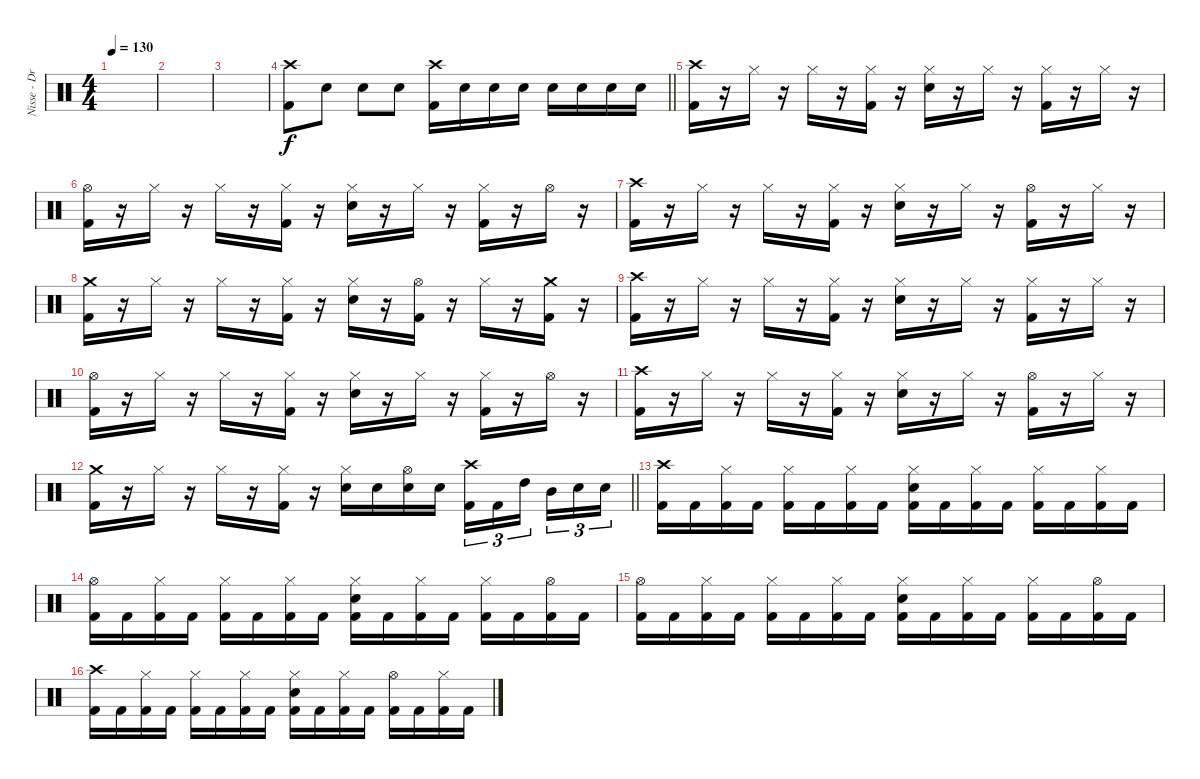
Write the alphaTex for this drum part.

\track ("Nisse - Drums" "Nisse - Dr") {instrument percussion}
\staff {score}
\articulation defaults
\ts (4 4)
\tempo 130
\clef neutral
\ks c
|
|
|
\barLineRight lightlight
("Crash high (hit)" "Kick (hit) 2").8 "Electric Snare (hit)".8 "Electric Snare (hit)".8 "Electric Snare (hit)".8 ("Crash high (hit)" "Kick (hit) 2").16 "Electric Snare (hit)".16 "Electric Snare (hit)".16 "Electric Snare (hit)".16 "Electric Snare (hit)".16 "Electric Snare (hit)".16 "Electric Snare (hit)".16 "Electric Snare (hit)".16 |
\section ("" "")
("Crash high (hit)" "Kick (hit) 2").16 r.16 "Hi-Hat (closed)".16 r.16 "Hi-Hat (closed)".16 r.16 ("Hi-Hat (closed)" "Kick (hit) 2").16 r.16 ("Hi-Hat (closed)" "Electric Snare (hit)").16 r.16 "Hi-Hat (closed)".16 r.16 ("Hi-Hat (closed)" "Kick (hit) 2").16 r.16 "Hi-Hat (closed)".16 r.16 |
("Hi-Hat (open)" "Kick (hit) 2").16 r.16 "Hi-Hat (closed)".16 r.16 "Hi-Hat (closed)".16 r.16 ("Hi-Hat (closed)" "Kick (hit) 2").16 r.16 ("Hi-Hat (closed)" "Electric Snare (hit)").16 r.16 "Hi-Hat (closed)".16 r.16 ("Hi-Hat (closed)" "Kick (hit) 2").16 r.16 "Hi-Hat (open)".16 r.16 |
("Crash high (hit)" "Kick (hit) 2").16 r.16 "Hi-Hat (closed)".16 r.16 "Hi-Hat (closed)".16 r.16 ("Hi-Hat (closed)" "Kick (hit) 2").16 r.16 ("Hi-Hat (closed)" "Electric Snare (hit)").16 r.16 "Hi-Hat (closed)".16 r.16 ("Hi-Hat (open)" "Kick (hit) 2").16 r.16 "Hi-Hat (closed)".16 r.16 |
("Crash medium (hit)" "Kick (hit) 2").16 r.16 "Hi-Hat (closed)".16 r.16 "Hi-Hat (closed)".16 r.16 ("Hi-Hat (closed)" "Kick (hit) 2").16 r.16 ("Hi-Hat (closed)" "Electric Snare (hit)").16 r.16 ("Hi-Hat (open)" "Kick (hit) 2").16 r.16 "Hi-Hat (closed)".16 r.16 ("Crash medium (hit)" "Kick (hit) 2").16 r.16 |
("Crash high (hit)" "Kick (hit) 2").16 r.16 "Hi-Hat (closed)".16 r.16 "Hi-Hat (closed)".16 r.16 ("Hi-Hat (closed)" "Kick (hit) 2").16 r.16 ("Hi-Hat (closed)" "Electric Snare (hit)").16 r.16 "Hi-Hat (closed)".16 r.16 ("Hi-Hat (closed)" "Kick (hit) 2").16 r.16 "Hi-Hat (closed)".16 r.16 |
("Hi-Hat (open)" "Kick (hit) 2").16 r.16 "Hi-Hat (closed)".16 r.16 "Hi-Hat (closed)".16 r.16 ("Hi-Hat (closed)" "Kick (hit) 2").16 r.16 ("Hi-Hat (closed)" "Electric Snare (hit)").16 r.16 "Hi-Hat (closed)".16 r.16 ("Hi-Hat (closed)" "Kick (hit) 2").16 r.16 "Hi-Hat (open)".16 r.16 |
("Crash high (hit)" "Kick (hit) 2").16 r.16 "Hi-Hat (closed)".16 r.16 "Hi-Hat (closed)".16 r.16 ("Hi-Hat (closed)" "Kick (hit) 2").16 r.16 ("Hi-Hat (closed)" "Electric Snare (hit)").16 r.16 "Hi-Hat (closed)".16 r.16 ("Hi-Hat (open)" "Kick (hit) 2").16 r.16 "Hi-Hat (closed)".16 r.16 |
\barLineRight lightlight
("Crash medium (hit)" "Kick (hit) 2").16 r.16 "Hi-Hat (closed)".16 r.16 "Hi-Hat (closed)".16 r.16 ("Hi-Hat (closed)" "Kick (hit) 2").16 r.16 ("Hi-Hat (closed)" "Electric Snare (hit)").16 "Electric Snare (hit)".16 ("Hi-Hat (open)" "Electric Snare (hit)").16 "Electric Snare (hit)".16 ("Crash high (hit)" "Kick (hit) 2").16{tu (3 2)} "Kick (hit) 2".16{tu (3 2)} "High Tom (hit)".16{tu (3 2) beam splitsecondary} "Mid Tom (hit)".16{tu (3 2)} "Electric Snare (hit)".16{tu (3 2)} "Electric Snare (hit)".16{tu (3 2)} |
("Crash high (hit)" "Kick (hit) 2").16 "Kick (hit) 2".16 ("Hi-Hat (closed)" "Kick (hit) 2").16 "Kick (hit) 2".16 ("Hi-Hat (closed)" "Kick (hit) 2").16 "Kick (hit) 2".16 ("Hi-Hat (closed)" "Kick (hit) 2").16 "Kick (hit) 2".16 ("Hi-Hat (closed)" "Electric Snare (hit)" "Kick (hit) 2").16 "Kick (hit) 2".16 ("Hi-Hat (closed)" "Kick (hit) 2").16 "Kick (hit) 2".16 ("Hi-Hat (closed)" "Kick (hit) 2").16 "Kick (hit) 2".16 ("Hi-Hat (closed)" "Kick (hit) 2").16 "Kick (hit) 2".16 |
("Hi-Hat (open)" "Kick (hit) 2").16 "Kick (hit) 2".16 ("Hi-Hat (closed)" "Kick (hit) 2").16 "Kick (hit) 2".16 ("Hi-Hat (closed)" "Kick (hit) 2").16 "Kick (hit) 2".16 ("Hi-Hat (closed)" "Kick (hit) 2").16 "Kick (hit) 2".16 ("Hi-Hat (closed)" "Electric Snare (hit)" "Kick (hit) 2").16 "Kick (hit) 2".16 ("Hi-Hat (closed)" "Kick (hit) 2").16 "Kick (hit) 2".16 ("Hi-Hat (closed)" "Kick (hit) 2").16 "Kick (hit) 2".16 ("Hi-Hat (open)" "Kick (hit) 2").16 "Kick (hit) 2".16 |
("Hi-Hat (open)" "Kick (hit) 2").16 "Kick (hit) 2".16 ("Hi-Hat (closed)" "Kick (hit) 2").16 "Kick (hit) 2".16 ("Hi-Hat (closed)" "Kick (hit) 2").16 "Kick (hit) 2".16 ("Hi-Hat (closed)" "Kick (hit) 2").16 "Kick (hit) 2".16 ("Hi-Hat (closed)" "Electric Snare (hit)" "Kick (hit) 2").16 "Kick (hit) 2".16 ("Hi-Hat (closed)" "Kick (hit) 2").16 "Kick (hit) 2".16 ("Hi-Hat (closed)" "Kick (hit) 2").16 "Kick (hit) 2".16 ("Hi-Hat (open)" "Kick (hit) 2").16 "Kick (hit) 2".16 |
("Crash high (hit)" "Kick (hit) 2").16 "Kick (hit) 2".16 ("Hi-Hat (closed)" "Kick (hit) 2").16 "Kick (hit) 2".16 ("Hi-Hat (closed)" "Kick (hit) 2").16 "Kick (hit) 2".16 ("Hi-Hat (closed)" "Kick (hit) 2").16 "Kick (hit) 2".16 ("Hi-Hat (closed)" "Electric Snare (hit)" "Kick (hit) 2").16 "Kick (hit) 2".16 ("Hi-Hat (closed)" "Kick (hit) 2").16 "Kick (hit) 2".16 ("Hi-Hat (open)" "Kick (hit) 2").16 "Kick (hit) 2".16 ("Hi-Hat (closed)" "Kick (hit) 2").16 "Kick (hit) 2".16
